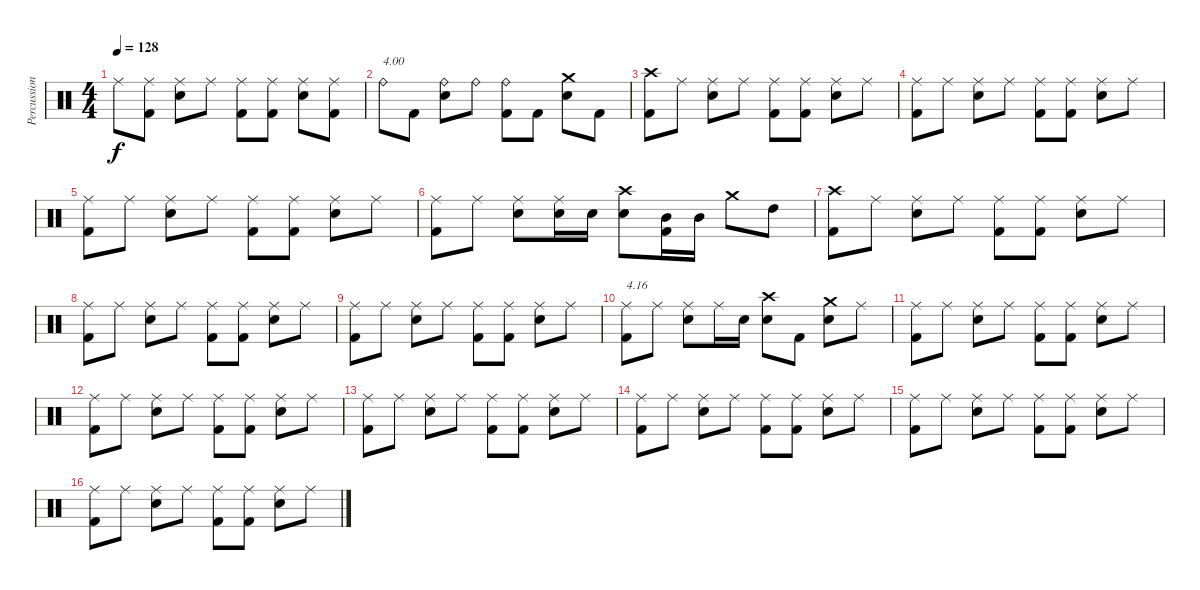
\track ("Percussion" "Percussion") {instrument percussion bank 10}
\staff {score}
\articulation defaults
\ts (4 4)
\tempo 128
\clef neutral
\ks c "Ride (middle)".8{dy f}
("Ride (middle)" "Kick (hit) 2").8 ("Ride (middle)" "Snare (hit) 2").8 "Ride (middle)".8 ("Ride (middle)" "Kick (hit) 2").8 ("Ride (middle)" "Kick (hit) 2").8 ("Ride (middle)" "Snare (hit) 2").8 ("Ride (middle)" "Kick (hit) 2").8 |
"Ride (bell)".8{txt "4.00"} "Kick (hit) 2".8 ("Ride (bell)" "Snare (hit) 2").8 "Ride (bell)".8 ("Ride (bell)" "Kick (hit) 2").8 "Kick (hit) 2".8 ("Crash medium (hit)" "Snare (hit) 2").8 "Kick (hit) 2".8 |
("Crash high (hit)" "Kick (hit) 2").8 "Ride (middle)".8 ("Ride (middle)" "Snare (hit) 2").8 "Ride (middle)".8 ("Ride (middle)" "Kick (hit) 2").8 ("Ride (middle)" "Kick (hit) 2").8 ("Ride (middle)" "Snare (hit) 2").8 "Ride (middle)".8 |
("Ride (middle)" "Kick (hit) 2").8 "Ride (middle)".8 ("Ride (middle)" "Snare (hit) 2").8 "Ride (middle)".8 ("Ride (middle)" "Kick (hit) 2").8 ("Ride (middle)" "Kick (hit) 2").8 ("Ride (middle)" "Snare (hit) 2").8 "Ride (middle)".8 |
("Ride (middle)" "Kick (hit) 2").8 "Ride (middle)".8 ("Ride (middle)" "Snare (hit) 2").8 "Ride (middle)".8 ("Ride (middle)" "Kick (hit) 2").8 ("Ride (middle)" "Kick (hit) 2").8 ("Ride (middle)" "Snare (hit) 2").8 "Ride (middle)".8 |
("Ride (middle)" "Kick (hit) 2").8 "Ride (middle)".8 ("Ride (middle)" "Snare (hit) 2").8 ("Ride (middle)" "Snare (hit) 2").16 "Snare (hit) 2".16 ("Crash high (hit)" "Snare (hit) 2").8 ("Mid Tom (hit)" "Kick (hit) 2").16 "Mid Tom (hit)".16 "Crash medium (hit)".8 "High Tom (hit)".8 |
("Crash high (hit)" "Kick (hit) 2").8 "Ride (middle)".8 ("Ride (middle)" "Snare (hit) 2").8 "Ride (middle)".8 ("Ride (middle)" "Kick (hit) 2").8 ("Ride (middle)" "Kick (hit) 2").8 ("Ride (middle)" "Snare (hit) 2").8 "Ride (middle)".8 |
("Ride (middle)" "Kick (hit) 2").8 "Ride (middle)".8 ("Ride (middle)" "Snare (hit) 2").8 "Ride (middle)".8 ("Ride (middle)" "Kick (hit) 2").8 ("Ride (middle)" "Kick (hit) 2").8 ("Ride (middle)" "Snare (hit) 2").8 "Ride (middle)".8 |
("Ride (middle)" "Kick (hit) 2").8 "Ride (middle)".8 ("Ride (middle)" "Snare (hit) 2").8 "Ride (middle)".8 ("Ride (middle)" "Kick (hit) 2").8 ("Ride (middle)" "Kick (hit) 2").8 ("Ride (middle)" "Snare (hit) 2").8 "Ride (middle)".8 |
("Ride (middle)" "Kick (hit) 2").8{txt "4.16"} "Ride (middle)".8 ("Ride (middle)" "Snare (hit) 2").8 "Ride (middle)".16 "Snare (hit) 2".16 ("Crash high (hit)" "Snare (hit) 2").8 "Kick (hit) 2".8 ("Crash medium (hit)" "Snare (hit) 2").8 "Ride (middle)".8 |
("Ride (middle)" "Kick (hit) 2").8 "Ride (middle)".8 ("Ride (middle)" "Snare (hit) 2").8 "Ride (middle)".8 ("Ride (middle)" "Kick (hit) 2").8 ("Ride (middle)" "Kick (hit) 2").8 ("Ride (middle)" "Snare (hit) 2").8 "Ride (middle)".8 |
("Ride (middle)" "Kick (hit) 2").8 "Ride (middle)".8 ("Ride (middle)" "Snare (hit) 2").8 "Ride (middle)".8 ("Ride (middle)" "Kick (hit) 2").8 ("Ride (middle)" "Kick (hit) 2").8 ("Ride (middle)" "Snare (hit) 2").8 "Ride (middle)".8 |
("Ride (middle)" "Kick (hit) 2").8 "Ride (middle)".8 ("Ride (middle)" "Snare (hit) 2").8 "Ride (middle)".8 ("Ride (middle)" "Kick (hit) 2").8 ("Ride (middle)" "Kick (hit) 2").8 ("Ride (middle)" "Snare (hit) 2").8 "Ride (middle)".8 |
("Ride (middle)" "Kick (hit) 2").8 "Ride (middle)".8 ("Ride (middle)" "Snare (hit) 2").8 "Ride (middle)".8 ("Ride (middle)" "Kick (hit) 2").8 ("Ride (middle)" "Kick (hit) 2").8 ("Ride (middle)" "Snare (hit) 2").8 "Ride (middle)".8 |
("Ride (middle)" "Kick (hit) 2").8 "Ride (middle)".8 ("Ride (middle)" "Snare (hit) 2").8 "Ride (middle)".8 ("Ride (middle)" "Kick (hit) 2").8 ("Ride (middle)" "Kick (hit) 2").8 ("Ride (middle)" "Snare (hit) 2").8 "Ride (middle)".8 |
("Ride (middle)" "Kick (hit) 2").8 "Ride (middle)".8 ("Ride (middle)" "Snare (hit) 2").8 "Ride (middle)".8 ("Ride (middle)" "Kick (hit) 2").8 ("Ride (middle)" "Kick (hit) 2").8 ("Ride (middle)" "Snare (hit) 2").8 "Ride (middle)".8
